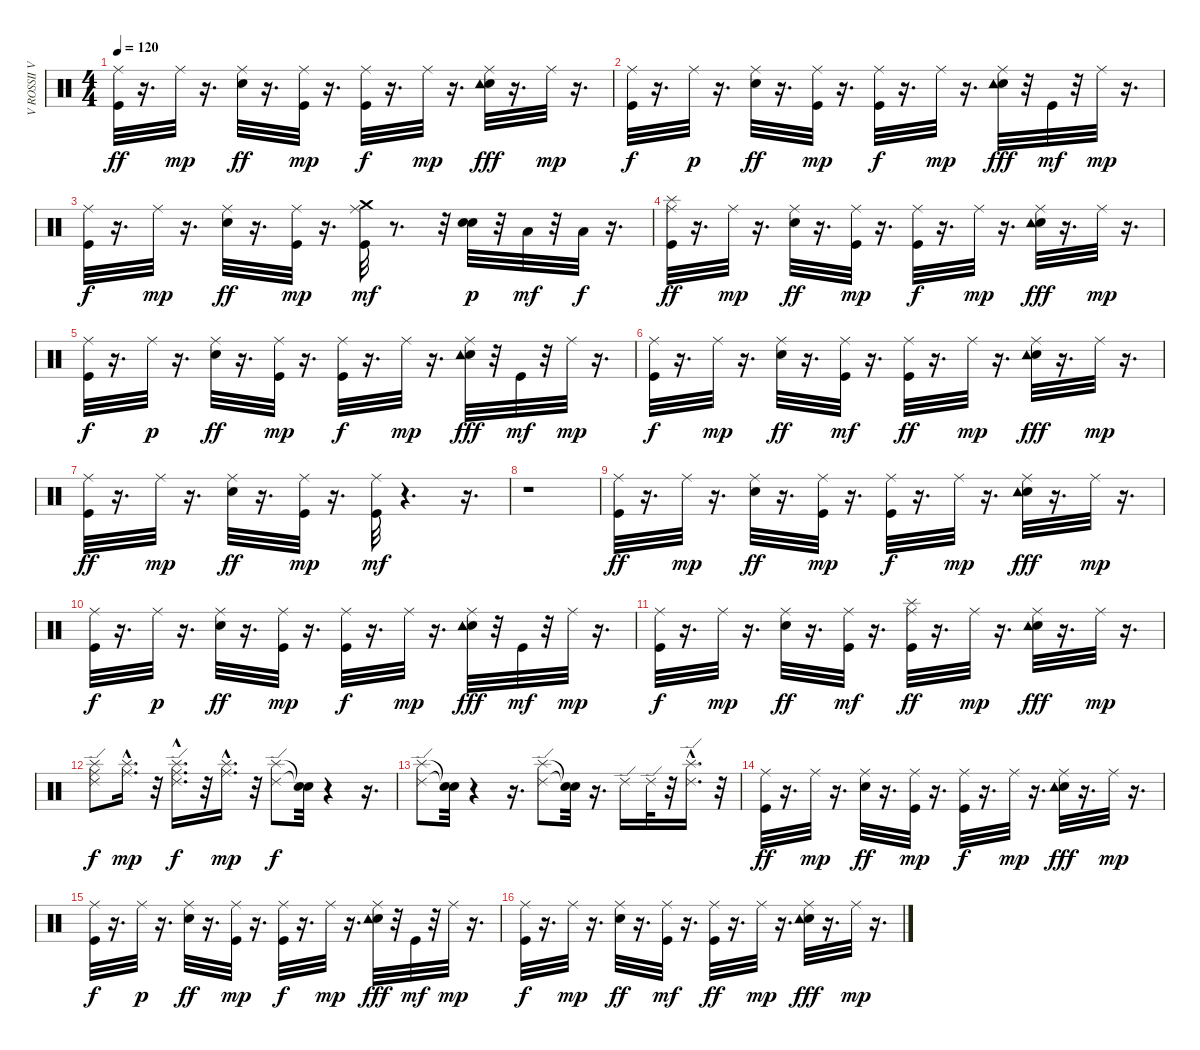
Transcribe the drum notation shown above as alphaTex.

\track ("V ROSSII VECHERA     " "V ROSSII V") {instrument percussion}
\staff {score}
\articulation defaults
\ts (4 4)
\tempo 120
\clef neutral
\ks c
("Ride (middle)" "Kick (hit)").32{dy ff} r.16{d} "Ride (middle)".32{dy mp} r.16{d} ("Snare (hit) 2" "Ride (middle)").32{dy ff} r.16{d} ("Kick (hit)" "Ride (middle)").32{dy mp} r.16{d} ("Kick (hit)" "Ride (middle)").32{dy f} r.16{d} "Ride (middle)".32{dy mp} r.16{d} ("Snare (hit) 2" "Ride (middle)" "Tambourine (hit)").32{dy fff} r.16{d} "Ride (middle)".32{dy mp} r.16{d} |
("Ride (middle)" "Kick (hit)").32{dy f} r.16{d} "Ride (middle)".32{dy p} r.16{d} ("Snare (hit) 2" "Ride (middle)").32{dy ff} r.16{d} ("Ride (middle)" "Kick (hit)").32{dy mp} r.16{d} ("Ride (middle)" "Kick (hit)").32{dy f} r.16{d} "Ride (middle)".32{dy mp} r.16{d} ("Snare (hit) 2" "Ride (middle)" "Tambourine (hit)").32{dy fff} r.32 "Kick (hit)".32{dy mf} r.32 "Ride (middle)".32{dy mp} r.16{d} |
("Kick (hit)" "Ride (middle)").32{dy f} r.16{d} "Ride (middle)".32{dy mp} r.16{d} ("Snare (hit) 2" "Ride (middle)").32{dy ff} r.16{d} ("Kick (hit)" "Ride (middle)").32{dy mp} r.16{d} ("Crash medium (hit)" "Kick (hit)" "Ride (middle)").32{dy mf} r.8{d} r.32 ("Snare (hit) 2" "Snare (hit) 2").32{dy p} r.32 "Low Tom (hit)".32{dy mf} r.32 "Low Floor Tom (hit)".32{dy f} r.16{d} |
("Splash (hit)" "Ride (middle)" "Kick (hit)").32{dy ff} r.16{d} "Ride (middle)".32{dy mp} r.16{d} ("Snare (hit) 2" "Ride (middle)").32{dy ff} r.16{d} ("Kick (hit)" "Ride (middle)").32{dy mp} r.16{d} ("Kick (hit)" "Ride (middle)").32{dy f} r.16{d} "Ride (middle)".32{dy mp} r.16{d} ("Snare (hit) 2" "Ride (middle)" "Tambourine (hit)").32{dy fff} r.16{d} "Ride (middle)".32{dy mp} r.16{d} |
("Ride (middle)" "Kick (hit)").32{dy f} r.16{d} "Ride (middle)".32{dy p} r.16{d} ("Snare (hit) 2" "Ride (middle)").32{dy ff} r.16{d} ("Ride (middle)" "Kick (hit)").32{dy mp} r.16{d} ("Ride (middle)" "Kick (hit)").32{dy f} r.16{d} "Ride (middle)".32{dy mp} r.16{d} ("Snare (hit) 2" "Ride (middle)" "Tambourine (hit)").32{dy fff} r.32 "Kick (hit)".32{dy mf} r.32 "Ride (middle)".32{dy mp} r.16{d} |
("Kick (hit)" "Ride (middle)").32{dy f} r.16{d} "Ride (middle)".32{dy mp} r.16{d} ("Snare (hit) 2" "Ride (middle)").32{dy ff} r.16{d} ("Ride (middle)" "Kick (hit)").32{dy mf} r.16{d} ("Ride (middle)" "Kick (hit)").32{dy ff} r.16{d} "Ride (middle)".32{dy mp} r.16{d} ("Snare (hit) 2" "Ride (middle)" "Tambourine (hit)").32{dy fff} r.16{d} "Ride (middle)".32{dy mp} r.16{d} |
("Kick (hit)" "Ride (middle)").32{dy ff} r.16{d} "Ride (middle)".32{dy mp} r.16{d} ("Snare (hit) 2" "Ride (middle)").32{dy ff} r.16{d} ("Kick (hit)" "Ride (middle)").32{dy mp} r.16{d} ("Kick (hit)" "Ride (middle)").32{dy mf} r.4{d} r.16{d} |
r.1 |
("Ride (middle)" "Kick (hit)").32{dy ff} r.16{d} "Ride (middle)".32{dy mp} r.16{d} ("Snare (hit) 2" "Ride (middle)").32{dy ff} r.16{d} ("Kick (hit)" "Ride (middle)").32{dy mp} r.16{d} ("Kick (hit)" "Ride (middle)").32{dy f} r.16{d} "Ride (middle)".32{dy mp} r.16{d} ("Snare (hit) 2" "Ride (middle)" "Tambourine (hit)").32{dy fff} r.16{d} "Ride (middle)".32{dy mp} r.16{d} |
("Ride (middle)" "Kick (hit)").32{dy f} r.16{d} "Ride (middle)".32{dy p} r.16{d} ("Snare (hit) 2" "Ride (middle)").32{dy ff} r.16{d} ("Ride (middle)" "Kick (hit)").32{dy mp} r.16{d} ("Ride (middle)" "Kick (hit)").32{dy f} r.16{d} "Ride (middle)".32{dy mp} r.16{d} ("Snare (hit) 2" "Ride (middle)" "Tambourine (hit)").32{dy fff} r.32 "Kick (hit)".32{dy mf} r.32 "Ride (middle)".32{dy mp} r.16{d} |
("Kick (hit)" "Ride (middle)").32{dy f} r.16{d} "Ride (middle)".32{dy mp} r.16{d} ("Snare (hit) 2" "Ride (middle)").32{dy ff} r.16{d} ("Ride (middle)" "Kick (hit)").32{dy mf} r.16{d} ("Splash (hit)" "Ride (middle)" "Kick (hit)").32{dy ff} r.16{d} "Ride (middle)".32{dy mp} r.16{d} ("Snare (hit) 2" "Ride (middle)" "Tambourine (hit)").32{dy fff} r.16{d} "Ride (middle)".32{dy mp} r.16{d} |
("Ride (edge) 2" "Splash (hit)" "Ride (middle)").8{dy f} ("Splash (hit)"{hac} "Ride (middle)").16{d dy mp} r.32 ("Ride (edge) 2" "Splash (hit)"{hac} "Ride (middle)").16{d dy f} r.32 ("Splash (hit)"{hac} "Ride (middle)").16{d dy mp} r.32 ("Ride (edge) 2" "Splash (hit)").8{dy f} ("Snare (hit)"{t} "Snare (hit)"{t}).32 r.4 r.16{d} |
("Splash (hit)" "Ride (edge) 2").8 ("Snare (hit)"{t} "Snare (hit)"{t}).32 r.4 r.16{d} ("Splash (hit)" "Ride (edge) 2").8 ("Snare (hit)"{t} "Snare (hit)"{t}).32 r.16{d} "Ride (edge) 2".16 "Ride (edge) 2".32 r.32 ("Ride (edge) 2"{hac} "Splash (hit)"{hac}).16{d} r.32 |
("Ride (middle)" "Kick (hit)").32{dy ff} r.16{d} "Ride (middle)".32{dy mp} r.16{d} ("Snare (hit) 2" "Ride (middle)").32{dy ff} r.16{d} ("Kick (hit)" "Ride (middle)").32{dy mp} r.16{d} ("Kick (hit)" "Ride (middle)").32{dy f} r.16{d} "Ride (middle)".32{dy mp} r.16{d} ("Snare (hit) 2" "Ride (middle)" "Tambourine (hit)").32{dy fff} r.16{d} "Ride (middle)".32{dy mp} r.16{d} |
("Ride (middle)" "Kick (hit)").32{dy f} r.16{d} "Ride (middle)".32{dy p} r.16{d} ("Snare (hit) 2" "Ride (middle)").32{dy ff} r.16{d} ("Ride (middle)" "Kick (hit)").32{dy mp} r.16{d} ("Ride (middle)" "Kick (hit)").32{dy f} r.16{d} "Ride (middle)".32{dy mp} r.16{d} ("Snare (hit) 2" "Ride (middle)" "Tambourine (hit)").32{dy fff} r.32 "Kick (hit)".32{dy mf} r.32 "Ride (middle)".32{dy mp} r.16{d} |
("Kick (hit)" "Ride (middle)").32{dy f} r.16{d} "Ride (middle)".32{dy mp} r.16{d} ("Snare (hit) 2" "Ride (middle)").32{dy ff} r.16{d} ("Ride (middle)" "Kick (hit)").32{dy mf} r.16{d} ("Ride (middle)" "Kick (hit)").32{dy ff} r.16{d} "Ride (middle)".32{dy mp} r.16{d} ("Snare (hit) 2" "Ride (middle)" "Tambourine (hit)").32{dy fff} r.16{d} "Ride (middle)".32{dy mp} r.16{d}
